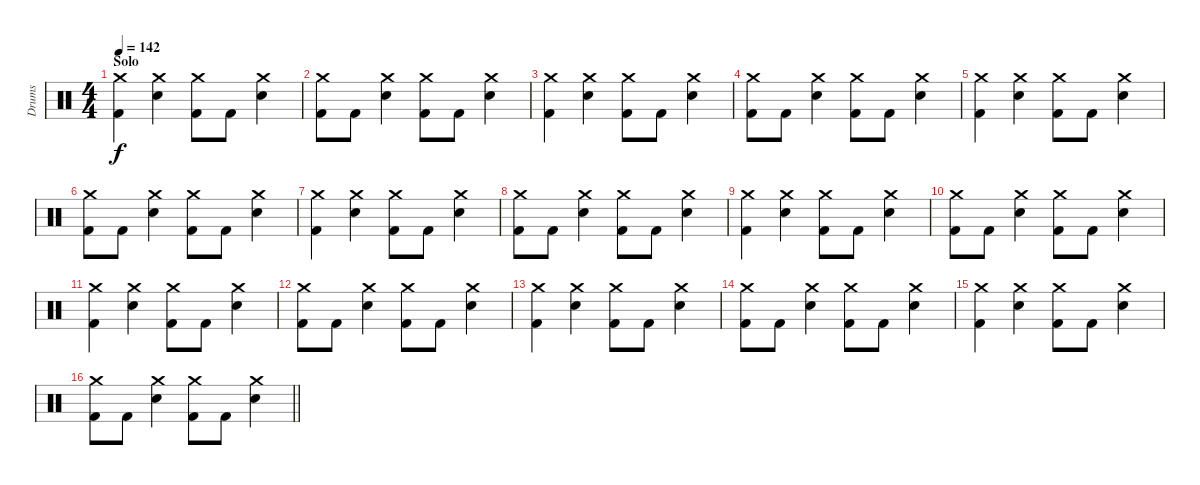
\track ("Drums" "Drums") {instrument percussion}
\staff {score}
\articulation defaults
\ts (4 4)
\section ("" "Solo")
\tempo 142
\clef neutral
\ks c
("Crash medium (hit)" "Kick (hit) 2").4{dy f} ("Crash medium (hit)" "Electric Snare (hit)").4 ("Crash medium (hit)" "Kick (hit) 2").8 "Kick (hit) 2".8 ("Crash medium (hit)" "Electric Snare (hit)").4 |
("Crash medium (hit)" "Kick (hit) 2").8 "Kick (hit) 2".8 ("Crash medium (hit)" "Electric Snare (hit)").4 ("Crash medium (hit)" "Kick (hit) 2").8 "Kick (hit) 2".8 ("Crash medium (hit)" "Electric Snare (hit)").4 |
("Crash medium (hit)" "Kick (hit) 2").4 ("Crash medium (hit)" "Electric Snare (hit)").4 ("Crash medium (hit)" "Kick (hit) 2").8 "Kick (hit) 2".8 ("Crash medium (hit)" "Electric Snare (hit)").4 |
("Crash medium (hit)" "Kick (hit) 2").8 "Kick (hit) 2".8 ("Crash medium (hit)" "Electric Snare (hit)").4 ("Crash medium (hit)" "Kick (hit) 2").8 "Kick (hit) 2".8 ("Crash medium (hit)" "Electric Snare (hit)").4 |
("Crash medium (hit)" "Kick (hit) 2").4 ("Crash medium (hit)" "Electric Snare (hit)").4 ("Crash medium (hit)" "Kick (hit) 2").8 "Kick (hit) 2".8 ("Crash medium (hit)" "Electric Snare (hit)").4 |
("Crash medium (hit)" "Kick (hit) 2").8 "Kick (hit) 2".8 ("Crash medium (hit)" "Electric Snare (hit)").4 ("Crash medium (hit)" "Kick (hit) 2").8 "Kick (hit) 2".8 ("Crash medium (hit)" "Electric Snare (hit)").4 |
("Crash medium (hit)" "Kick (hit) 2").4 ("Crash medium (hit)" "Electric Snare (hit)").4 ("Crash medium (hit)" "Kick (hit) 2").8 "Kick (hit) 2".8 ("Crash medium (hit)" "Electric Snare (hit)").4 |
("Crash medium (hit)" "Kick (hit) 2").8 "Kick (hit) 2".8 ("Crash medium (hit)" "Electric Snare (hit)").4 ("Crash medium (hit)" "Kick (hit) 2").8 "Kick (hit) 2".8 ("Crash medium (hit)" "Electric Snare (hit)").4 |
("Crash medium (hit)" "Kick (hit) 2").4 ("Crash medium (hit)" "Electric Snare (hit)").4 ("Crash medium (hit)" "Kick (hit) 2").8 "Kick (hit) 2".8 ("Crash medium (hit)" "Electric Snare (hit)").4 |
("Crash medium (hit)" "Kick (hit) 2").8 "Kick (hit) 2".8 ("Crash medium (hit)" "Electric Snare (hit)").4 ("Crash medium (hit)" "Kick (hit) 2").8 "Kick (hit) 2".8 ("Crash medium (hit)" "Electric Snare (hit)").4 |
("Crash medium (hit)" "Kick (hit) 2").4 ("Crash medium (hit)" "Electric Snare (hit)").4 ("Crash medium (hit)" "Kick (hit) 2").8 "Kick (hit) 2".8 ("Crash medium (hit)" "Electric Snare (hit)").4 |
("Crash medium (hit)" "Kick (hit) 2").8 "Kick (hit) 2".8 ("Crash medium (hit)" "Electric Snare (hit)").4 ("Crash medium (hit)" "Kick (hit) 2").8 "Kick (hit) 2".8 ("Crash medium (hit)" "Electric Snare (hit)").4 |
("Crash medium (hit)" "Kick (hit) 2").4 ("Crash medium (hit)" "Electric Snare (hit)").4 ("Crash medium (hit)" "Kick (hit) 2").8 "Kick (hit) 2".8 ("Crash medium (hit)" "Electric Snare (hit)").4 |
("Crash medium (hit)" "Kick (hit) 2").8 "Kick (hit) 2".8 ("Crash medium (hit)" "Electric Snare (hit)").4 ("Crash medium (hit)" "Kick (hit) 2").8 "Kick (hit) 2".8 ("Crash medium (hit)" "Electric Snare (hit)").4 |
("Crash medium (hit)" "Kick (hit) 2").4 ("Crash medium (hit)" "Electric Snare (hit)").4 ("Crash medium (hit)" "Kick (hit) 2").8 "Kick (hit) 2".8 ("Crash medium (hit)" "Electric Snare (hit)").4 |
\barLineRight lightlight
("Crash medium (hit)" "Kick (hit) 2").8 "Kick (hit) 2".8 ("Crash medium (hit)" "Electric Snare (hit)").4 ("Crash medium (hit)" "Kick (hit) 2").8 "Kick (hit) 2".8 ("Crash medium (hit)" "Electric Snare (hit)").4
